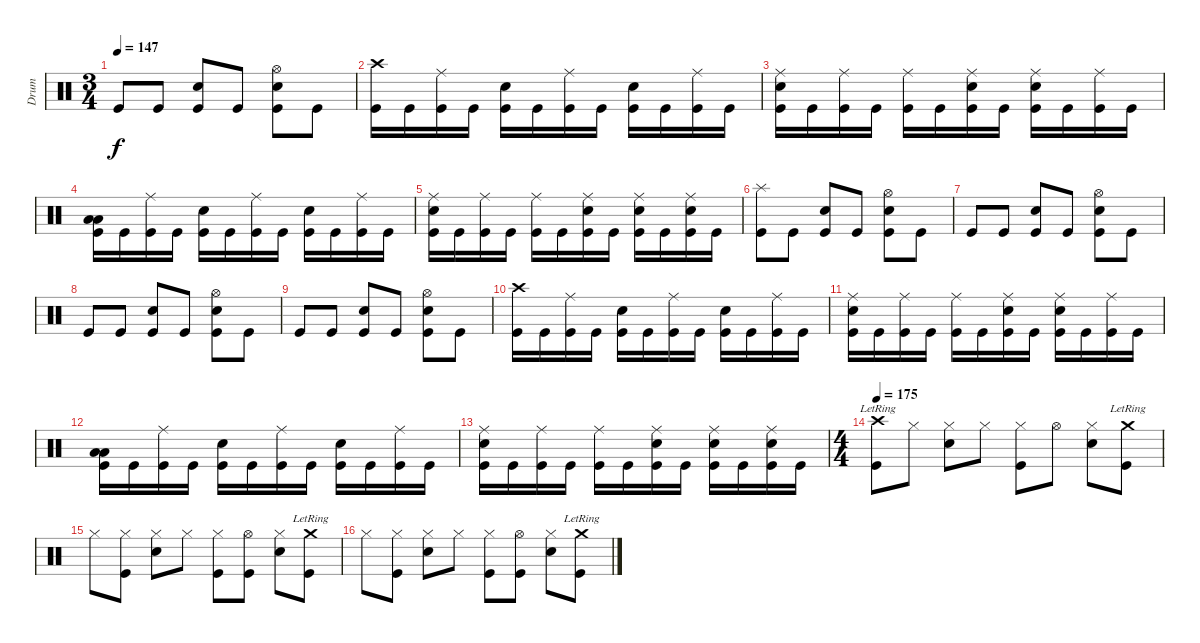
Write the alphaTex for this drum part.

\track ("Drum" "Drum") {instrument percussion}
\staff {score}
\articulation defaults
\ts (3 4)
\tempo 147
\clef neutral
\ks c "Kick (hit)".8{dy f} "Kick (hit)".8
("Snare (hit) 2" "Kick (hit)").8 "Kick (hit)".8 ("Hi-Hat (open)" "Snare (hit) 2" "Kick (hit)").8 "Kick (hit)".8 |
("Crash high (hit)" "Kick (hit)").16 "Kick (hit)".16 ("Ride (middle)" "Kick (hit)").16 "Kick (hit)".16 ("Snare (hit) 2" "Kick (hit)").16 "Kick (hit)".16 ("Ride (middle)" "Kick (hit)").16 "Kick (hit)".16 ("Snare (hit) 2" "Kick (hit)").16 "Kick (hit)".16 ("Ride (middle)" "Kick (hit)").16 "Kick (hit)".16 |
("Ride (middle)" "Snare (hit) 2" "Kick (hit)").16 "Kick (hit)".16 ("Ride (middle)" "Kick (hit)").16 "Kick (hit)".16 ("Ride (middle)" "Kick (hit)").16 "Kick (hit)".16 ("Ride (middle)" "Snare (hit) 2" "Kick (hit)").16 "Kick (hit)".16 ("Ride (middle)" "Snare (hit) 2" "Kick (hit)").16 "Kick (hit)".16 ("Ride (middle)" "Kick (hit)").16 "Kick (hit)".16 |
("Low Floor Tom (hit)" "Low Floor Tom (hit)" "Kick (hit)").16 "Kick (hit)".16 ("Ride (middle)" "Kick (hit)").16 "Kick (hit)".16 ("Snare (hit) 2" "Kick (hit)").16 "Kick (hit)".16 ("Ride (middle)" "Kick (hit)").16 "Kick (hit)".16 ("Snare (hit) 2" "Kick (hit)").16 "Kick (hit)".16 ("Ride (middle)" "Kick (hit)").16 "Kick (hit)".16 |
("Ride (middle)" "Snare (hit) 2" "Kick (hit)").16 "Kick (hit)".16 ("Ride (middle)" "Kick (hit)").16 "Kick (hit)".16 ("Ride (middle)" "Kick (hit)").16 "Kick (hit)".16 ("Ride (middle)" "Snare (hit) 2" "Kick (hit)").16 "Kick (hit)".16 ("Ride (middle)" "Snare (hit) 2" "Kick (hit)").16 "Kick (hit)".16 ("Ride (middle)" "Snare (hit) 2" "Kick (hit)").16 "Kick (hit)".16 |
("Splash (hit)" "Kick (hit)").8 "Kick (hit)".8 ("Snare (hit) 2" "Kick (hit)").8 "Kick (hit)".8 ("Hi-Hat (open)" "Snare (hit) 2" "Kick (hit)").8 "Kick (hit)".8 |
"Kick (hit)".8 "Kick (hit)".8 ("Snare (hit) 2" "Kick (hit)").8 "Kick (hit)".8 ("Hi-Hat (open)" "Snare (hit) 2" "Kick (hit)").8 "Kick (hit)".8 |
"Kick (hit)".8 "Kick (hit)".8 ("Snare (hit) 2" "Kick (hit)").8 "Kick (hit)".8 ("Hi-Hat (open)" "Snare (hit) 2" "Kick (hit)").8 "Kick (hit)".8 |
"Kick (hit)".8 "Kick (hit)".8 ("Snare (hit) 2" "Kick (hit)").8 "Kick (hit)".8 ("Hi-Hat (open)" "Snare (hit) 2" "Kick (hit)").8 "Kick (hit)".8 |
("Crash high (hit)" "Kick (hit)").16 "Kick (hit)".16 ("Ride (middle)" "Kick (hit)").16 "Kick (hit)".16 ("Snare (hit) 2" "Kick (hit)").16 "Kick (hit)".16 ("Ride (middle)" "Kick (hit)").16 "Kick (hit)".16 ("Snare (hit) 2" "Kick (hit)").16 "Kick (hit)".16 ("Ride (middle)" "Kick (hit)").16 "Kick (hit)".16 |
("Ride (middle)" "Snare (hit) 2" "Kick (hit)").16 "Kick (hit)".16 ("Ride (middle)" "Kick (hit)").16 "Kick (hit)".16 ("Ride (middle)" "Kick (hit)").16 "Kick (hit)".16 ("Ride (middle)" "Snare (hit) 2" "Kick (hit)").16 "Kick (hit)".16 ("Ride (middle)" "Snare (hit) 2" "Kick (hit)").16 "Kick (hit)".16 ("Ride (middle)" "Kick (hit)").16 "Kick (hit)".16 |
("Low Floor Tom (hit)" "Low Floor Tom (hit)" "Kick (hit)").16 "Kick (hit)".16 ("Ride (middle)" "Kick (hit)").16 "Kick (hit)".16 ("Snare (hit) 2" "Kick (hit)").16 "Kick (hit)".16 ("Ride (middle)" "Kick (hit)").16 "Kick (hit)".16 ("Snare (hit) 2" "Kick (hit)").16 "Kick (hit)".16 ("Ride (middle)" "Kick (hit)").16 "Kick (hit)".16 |
("Ride (middle)" "Snare (hit) 2" "Kick (hit)").16 "Kick (hit)".16 ("Ride (middle)" "Kick (hit)").16 "Kick (hit)".16 ("Ride (middle)" "Kick (hit)").16 "Kick (hit)".16 ("Ride (middle)" "Snare (hit) 2" "Kick (hit)").16 "Kick (hit)".16 ("Ride (middle)" "Snare (hit) 2" "Kick (hit)").16 "Kick (hit)".16 ("Ride (middle)" "Snare (hit) 2" "Kick (hit)").16 "Kick (hit)".16 |
\ts (4 4)
\tempo 175
("Crash high (hit)"{lr} "Kick (hit)").8 "Hi-Hat (closed)".8 ("Hi-Hat (closed)" "Snare (hit) 2").8 "Hi-Hat (closed)".8 ("Hi-Hat (closed)" "Kick (hit)").8 "Hi-Hat (open)".8 ("Hi-Hat (closed)" "Snare (hit) 2").8 ("Crash medium (hit)"{lr} "Kick (hit)").8 |
"Hi-Hat (closed)".8 ("Hi-Hat (closed)" "Kick (hit)").8 ("Hi-Hat (closed)" "Snare (hit) 2").8 "Hi-Hat (closed)".8 ("Hi-Hat (closed)" "Kick (hit)").8 ("Hi-Hat (open)" "Kick (hit)").8 ("Hi-Hat (closed)" "Snare (hit) 2").8 ("Crash medium (hit)"{lr} "Kick (hit)").8 |
"Hi-Hat (closed)".8 ("Hi-Hat (closed)" "Kick (hit)").8 ("Hi-Hat (closed)" "Snare (hit) 2").8 "Hi-Hat (closed)".8 ("Hi-Hat (closed)" "Kick (hit)").8 ("Hi-Hat (open)" "Kick (hit)").8 ("Hi-Hat (closed)" "Snare (hit) 2").8 ("Crash medium (hit)"{lr} "Kick (hit)").8
